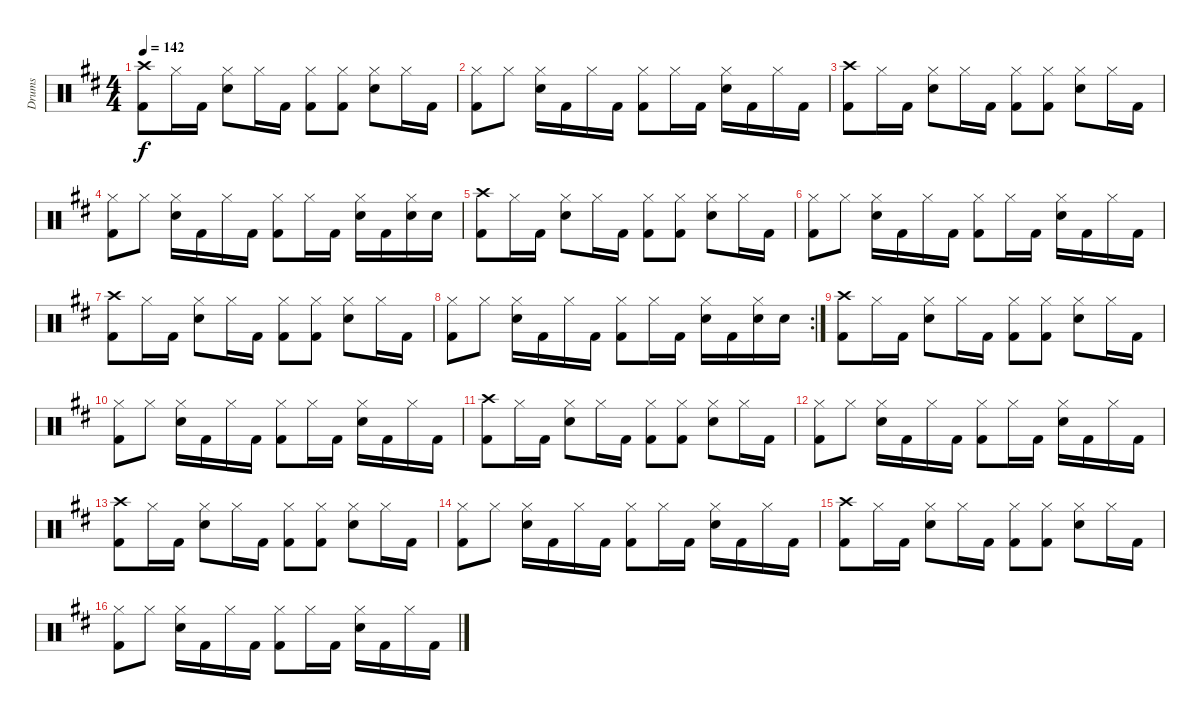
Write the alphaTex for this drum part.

\track ("Drums" "Drums") {instrument percussion}
\staff {score}
\articulation defaults
\ts (4 4)
\tempo 142
\clef neutral
\ks bminor
("Crash high (hit)" "Kick (hit) 2").8{dy f} "Hi-Hat (closed)".16 "Kick (hit) 2".16 ("Hi-Hat (closed)" "Electric Snare (hit)").8 "Hi-Hat (closed)".16 "Kick (hit) 2".16 ("Hi-Hat (closed)" "Kick (hit) 2").8 ("Hi-Hat (closed)" "Kick (hit) 2").8 ("Hi-Hat (closed)" "Electric Snare (hit)").8 "Hi-Hat (closed)".16 "Kick (hit) 2".16 |
("Hi-Hat (closed)" "Kick (hit) 2").8 "Hi-Hat (closed)".8 ("Hi-Hat (closed)" "Electric Snare (hit)").16 "Kick (hit) 2".16 "Hi-Hat (closed)".16 "Kick (hit) 2".16 ("Hi-Hat (closed)" "Kick (hit) 2").8 "Hi-Hat (closed)".16 "Kick (hit) 2".16 ("Hi-Hat (closed)" "Electric Snare (hit)").16 "Kick (hit) 2".16 "Hi-Hat (closed)".16 "Kick (hit) 2".16 |
("Crash high (hit)" "Kick (hit) 2").8 "Hi-Hat (closed)".16 "Kick (hit) 2".16 ("Hi-Hat (closed)" "Electric Snare (hit)").8 "Hi-Hat (closed)".16 "Kick (hit) 2".16 ("Hi-Hat (closed)" "Kick (hit) 2").8 ("Hi-Hat (closed)" "Kick (hit) 2").8 ("Hi-Hat (closed)" "Electric Snare (hit)").8 "Hi-Hat (closed)".16 "Kick (hit) 2".16 |
("Hi-Hat (closed)" "Kick (hit) 2").8 "Hi-Hat (closed)".8 ("Hi-Hat (closed)" "Electric Snare (hit)").16 "Kick (hit) 2".16 "Hi-Hat (closed)".16 "Kick (hit) 2".16 ("Hi-Hat (closed)" "Kick (hit) 2").8 "Hi-Hat (closed)".16 "Kick (hit) 2".16 ("Hi-Hat (closed)" "Electric Snare (hit)").16 "Kick (hit) 2".16 ("Hi-Hat (closed)" "Electric Snare (hit)").16 "Electric Snare (hit)".16 |
("Crash high (hit)" "Kick (hit) 2").8 "Hi-Hat (closed)".16 "Kick (hit) 2".16 ("Hi-Hat (closed)" "Electric Snare (hit)").8 "Hi-Hat (closed)".16 "Kick (hit) 2".16 ("Hi-Hat (closed)" "Kick (hit) 2").8 ("Hi-Hat (closed)" "Kick (hit) 2").8 ("Hi-Hat (closed)" "Electric Snare (hit)").8 "Hi-Hat (closed)".16 "Kick (hit) 2".16 |
("Hi-Hat (closed)" "Kick (hit) 2").8 "Hi-Hat (closed)".8 ("Hi-Hat (closed)" "Electric Snare (hit)").16 "Kick (hit) 2".16 "Hi-Hat (closed)".16 "Kick (hit) 2".16 ("Hi-Hat (closed)" "Kick (hit) 2").8 "Hi-Hat (closed)".16 "Kick (hit) 2".16 ("Hi-Hat (closed)" "Electric Snare (hit)").16 "Kick (hit) 2".16 "Hi-Hat (closed)".16 "Kick (hit) 2".16 |
("Crash high (hit)" "Kick (hit) 2").8 "Hi-Hat (closed)".16 "Kick (hit) 2".16 ("Hi-Hat (closed)" "Electric Snare (hit)").8 "Hi-Hat (closed)".16 "Kick (hit) 2".16 ("Hi-Hat (closed)" "Kick (hit) 2").8 ("Hi-Hat (closed)" "Kick (hit) 2").8 ("Hi-Hat (closed)" "Electric Snare (hit)").8 "Hi-Hat (closed)".16 "Kick (hit) 2".16 |
\rc 2
("Hi-Hat (closed)" "Kick (hit) 2").8 "Hi-Hat (closed)".8 ("Hi-Hat (closed)" "Electric Snare (hit)").16 "Kick (hit) 2".16 "Hi-Hat (closed)".16 "Kick (hit) 2".16 ("Hi-Hat (closed)" "Kick (hit) 2").8 "Hi-Hat (closed)".16 "Kick (hit) 2".16 ("Hi-Hat (closed)" "Electric Snare (hit)").16 "Kick (hit) 2".16 ("Hi-Hat (closed)" "Electric Snare (hit)").16 "Electric Snare (hit)".16 |
("Crash high (hit)" "Kick (hit) 2").8 "Hi-Hat (closed)".16 "Kick (hit) 2".16 ("Hi-Hat (closed)" "Electric Snare (hit)").8 "Hi-Hat (closed)".16 "Kick (hit) 2".16 ("Hi-Hat (closed)" "Kick (hit) 2").8 ("Hi-Hat (closed)" "Kick (hit) 2").8 ("Hi-Hat (closed)" "Electric Snare (hit)").8 "Hi-Hat (closed)".16 "Kick (hit) 2".16 |
("Hi-Hat (closed)" "Kick (hit) 2").8 "Hi-Hat (closed)".8 ("Hi-Hat (closed)" "Electric Snare (hit)").16 "Kick (hit) 2".16 "Hi-Hat (closed)".16 "Kick (hit) 2".16 ("Hi-Hat (closed)" "Kick (hit) 2").8 "Hi-Hat (closed)".16 "Kick (hit) 2".16 ("Hi-Hat (closed)" "Electric Snare (hit)").16 "Kick (hit) 2".16 "Hi-Hat (closed)".16 "Kick (hit) 2".16 |
("Crash high (hit)" "Kick (hit) 2").8 "Hi-Hat (closed)".16 "Kick (hit) 2".16 ("Hi-Hat (closed)" "Electric Snare (hit)").8 "Hi-Hat (closed)".16 "Kick (hit) 2".16 ("Hi-Hat (closed)" "Kick (hit) 2").8 ("Hi-Hat (closed)" "Kick (hit) 2").8 ("Hi-Hat (closed)" "Electric Snare (hit)").8 "Hi-Hat (closed)".16 "Kick (hit) 2".16 |
("Hi-Hat (closed)" "Kick (hit) 2").8 "Hi-Hat (closed)".8 ("Hi-Hat (closed)" "Electric Snare (hit)").16 "Kick (hit) 2".16 "Hi-Hat (closed)".16 "Kick (hit) 2".16 ("Hi-Hat (closed)" "Kick (hit) 2").8 "Hi-Hat (closed)".16 "Kick (hit) 2".16 ("Hi-Hat (closed)" "Electric Snare (hit)").16 "Kick (hit) 2".16 "Hi-Hat (closed)".16 "Kick (hit) 2".16 |
("Crash high (hit)" "Kick (hit) 2").8 "Hi-Hat (closed)".16 "Kick (hit) 2".16 ("Hi-Hat (closed)" "Electric Snare (hit)").8 "Hi-Hat (closed)".16 "Kick (hit) 2".16 ("Hi-Hat (closed)" "Kick (hit) 2").8 ("Hi-Hat (closed)" "Kick (hit) 2").8 ("Hi-Hat (closed)" "Electric Snare (hit)").8 "Hi-Hat (closed)".16 "Kick (hit) 2".16 |
("Hi-Hat (closed)" "Kick (hit) 2").8 "Hi-Hat (closed)".8 ("Hi-Hat (closed)" "Electric Snare (hit)").16 "Kick (hit) 2".16 "Hi-Hat (closed)".16 "Kick (hit) 2".16 ("Hi-Hat (closed)" "Kick (hit) 2").8 "Hi-Hat (closed)".16 "Kick (hit) 2".16 ("Hi-Hat (closed)" "Electric Snare (hit)").16 "Kick (hit) 2".16 "Hi-Hat (closed)".16 "Kick (hit) 2".16 |
("Crash high (hit)" "Kick (hit) 2").8 "Hi-Hat (closed)".16 "Kick (hit) 2".16 ("Hi-Hat (closed)" "Electric Snare (hit)").8 "Hi-Hat (closed)".16 "Kick (hit) 2".16 ("Hi-Hat (closed)" "Kick (hit) 2").8 ("Hi-Hat (closed)" "Kick (hit) 2").8 ("Hi-Hat (closed)" "Electric Snare (hit)").8 "Hi-Hat (closed)".16 "Kick (hit) 2".16 |
("Hi-Hat (closed)" "Kick (hit) 2").8 "Hi-Hat (closed)".8 ("Hi-Hat (closed)" "Electric Snare (hit)").16 "Kick (hit) 2".16 "Hi-Hat (closed)".16 "Kick (hit) 2".16 ("Hi-Hat (closed)" "Kick (hit) 2").8 "Hi-Hat (closed)".16 "Kick (hit) 2".16 ("Hi-Hat (closed)" "Electric Snare (hit)").16 "Kick (hit) 2".16 "Hi-Hat (closed)".16 "Kick (hit) 2".16
